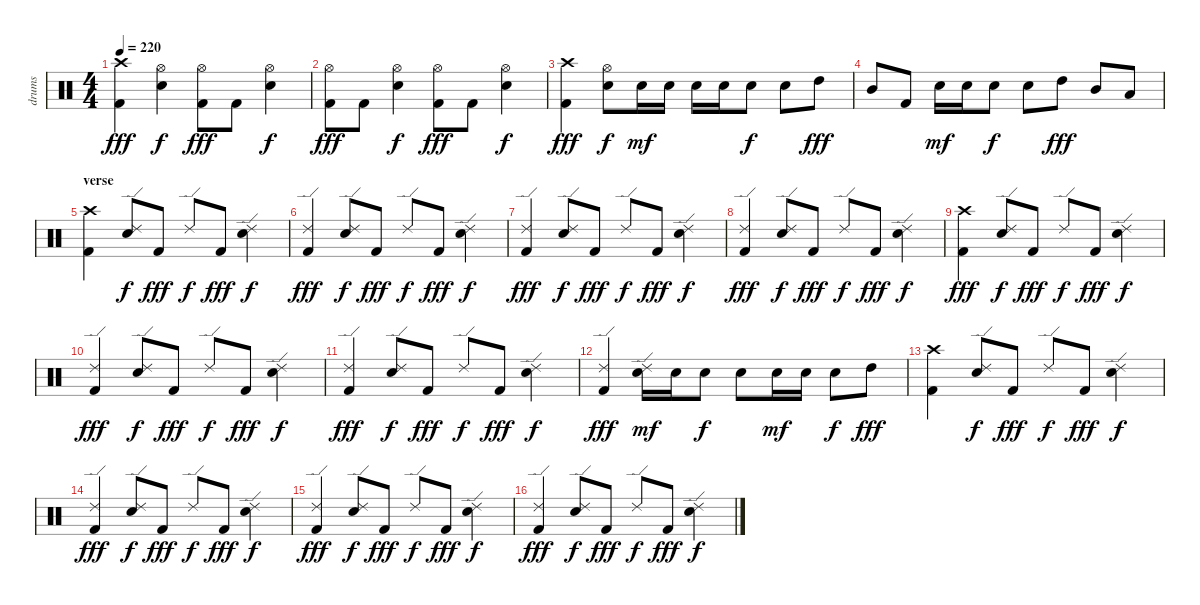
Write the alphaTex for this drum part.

\track ("drums" "drums") {instrument percussion}
\staff {score}
\articulation defaults
\ts (4 4)
\tempo 220
\clef neutral
\ks c
("Crash high (hit)" "Kick (hit) 2").4{dy fff} ("Hi-Hat (open)" "Snare (hit) 2").4{dy f} ("Hi-Hat (open)" "Kick (hit) 2").8{dy fff} "Kick (hit) 2".8 ("Hi-Hat (open)" "Snare (hit) 2").4{dy f} |
("Hi-Hat (open)" "Kick (hit) 2").8{dy fff} "Kick (hit) 2".8 ("Hi-Hat (open)" "Snare (hit) 2").4{dy f} ("Hi-Hat (open)" "Kick (hit) 2").8{dy fff} "Kick (hit) 2".8 ("Hi-Hat (open)" "Snare (hit) 2").4{dy f} |
("Crash high (hit)" "Kick (hit) 2").4{dy fff} ("Hi-Hat (open)" "Snare (hit) 2").8{dy f} "Snare (hit) 2".16{dy mf} "Snare (hit) 2".16 "Snare (hit) 2".16 "Snare (hit) 2".16 "Snare (hit) 2".8{dy f} "Snare (hit) 2".8 "High Tom (hit)".8{dy fff} |
"Mid Tom (hit)".8 "Kick (hit) 2".8 "Snare (hit) 2".16{dy mf} "Snare (hit) 2".16 "Snare (hit) 2".8{dy f} "Snare (hit) 2".8 "High Tom (hit)".8{dy fff} "Mid Tom (hit)".8 "Low Tom (hit)".8 |
\section ("" "verse")
("Crash high (hit)" "Kick (hit) 2").4 ("Ride (edge) 2" "Snare (hit) 2").8{dy f} "Kick (hit) 2".8{dy fff} "Ride (edge) 2".8{dy f} "Kick (hit) 2".8{dy fff} ("Ride (edge) 2" "Snare (hit) 2").4{dy f} |
("Ride (edge) 2" "Kick (hit) 2").4{dy fff} ("Ride (edge) 2" "Snare (hit) 2").8{dy f} "Kick (hit) 2".8{dy fff} "Ride (edge) 2".8{dy f} "Kick (hit) 2".8{dy fff} ("Ride (edge) 2" "Snare (hit) 2").4{dy f} |
("Ride (edge) 2" "Kick (hit) 2").4{dy fff} ("Ride (edge) 2" "Snare (hit) 2").8{dy f} "Kick (hit) 2".8{dy fff} "Ride (edge) 2".8{dy f} "Kick (hit) 2".8{dy fff} ("Ride (edge) 2" "Snare (hit) 2").4{dy f} |
("Ride (edge) 2" "Kick (hit) 2").4{dy fff} ("Ride (edge) 2" "Snare (hit) 2").8{dy f} "Kick (hit) 2".8{dy fff} "Ride (edge) 2".8{dy f} "Kick (hit) 2".8{dy fff} ("Ride (edge) 2" "Snare (hit) 2").4{dy f} |
("Crash high (hit)" "Kick (hit) 2").4{dy fff} ("Ride (edge) 2" "Snare (hit) 2").8{dy f} "Kick (hit) 2".8{dy fff} "Ride (edge) 2".8{dy f} "Kick (hit) 2".8{dy fff} ("Ride (edge) 2" "Snare (hit) 2").4{dy f} |
("Ride (edge) 2" "Kick (hit) 2").4{dy fff} ("Ride (edge) 2" "Snare (hit) 2").8{dy f} "Kick (hit) 2".8{dy fff} "Ride (edge) 2".8{dy f} "Kick (hit) 2".8{dy fff} ("Ride (edge) 2" "Snare (hit) 2").4{dy f} |
("Ride (edge) 2" "Kick (hit) 2").4{dy fff} ("Ride (edge) 2" "Snare (hit) 2").8{dy f} "Kick (hit) 2".8{dy fff} "Ride (edge) 2".8{dy f} "Kick (hit) 2".8{dy fff} ("Ride (edge) 2" "Snare (hit) 2").4{dy f} |
("Ride (edge) 2" "Kick (hit) 2").4{dy fff} ("Ride (edge) 2" "Snare (hit) 2").16{dy mf} "Snare (hit) 2".16 "Snare (hit) 2".8{dy f} "Snare (hit) 2".8 "Snare (hit) 2".16{dy mf} "Snare (hit) 2".16 "Snare (hit) 2".8{dy f} "High Tom (hit)".8{dy fff} |
("Crash high (hit)" "Kick (hit) 2").4 ("Ride (edge) 2" "Snare (hit) 2").8{dy f} "Kick (hit) 2".8{dy fff} "Ride (edge) 2".8{dy f} "Kick (hit) 2".8{dy fff} ("Ride (edge) 2" "Snare (hit) 2").4{dy f} |
("Ride (edge) 2" "Kick (hit) 2").4{dy fff} ("Ride (edge) 2" "Snare (hit) 2").8{dy f} "Kick (hit) 2".8{dy fff} "Ride (edge) 2".8{dy f} "Kick (hit) 2".8{dy fff} ("Ride (edge) 2" "Snare (hit) 2").4{dy f} |
("Ride (edge) 2" "Kick (hit) 2").4{dy fff} ("Ride (edge) 2" "Snare (hit) 2").8{dy f} "Kick (hit) 2".8{dy fff} "Ride (edge) 2".8{dy f} "Kick (hit) 2".8{dy fff} ("Ride (edge) 2" "Snare (hit) 2").4{dy f} |
("Ride (edge) 2" "Kick (hit) 2").4{dy fff} ("Ride (edge) 2" "Snare (hit) 2").8{dy f} "Kick (hit) 2".8{dy fff} "Ride (edge) 2".8{dy f} "Kick (hit) 2".8{dy fff} ("Ride (edge) 2" "Snare (hit) 2").4{dy f}
